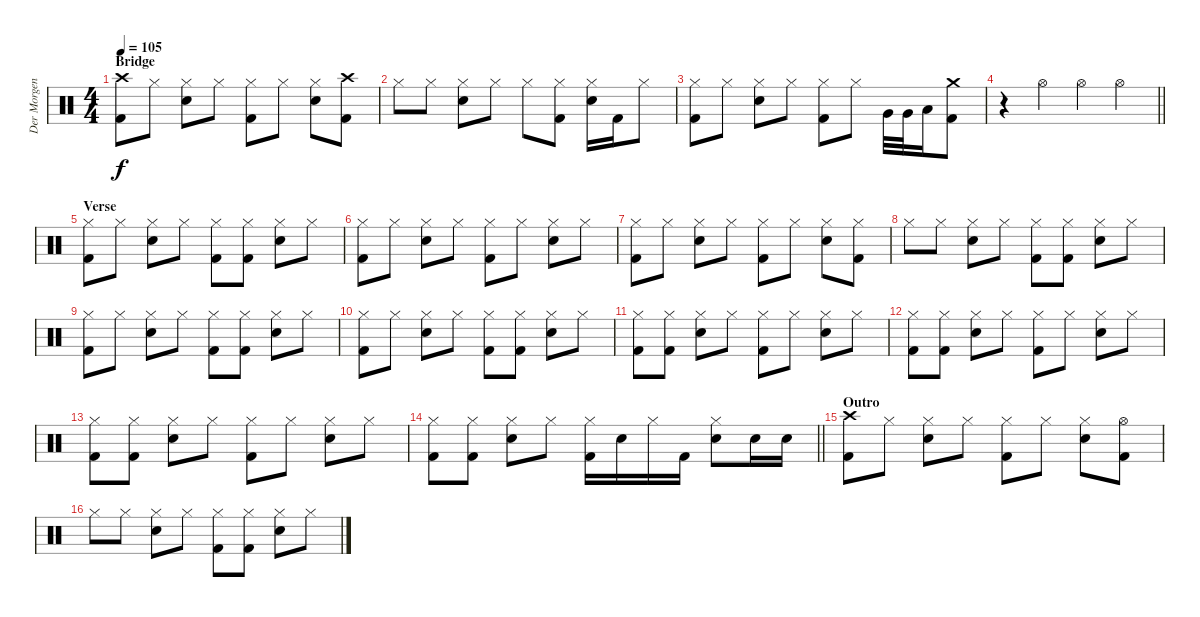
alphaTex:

\track ("Der Morgenstern" "Der Morgen") {instrument percussion}
\staff {score}
\articulation defaults
\ts (4 4)
\section ("" "Bridge")
\tempo 105
\clef neutral
\ks c
("Crash high (hit)" "Kick (hit) 2").8{dy f} "Hi-Hat (closed)".8 ("Hi-Hat (closed)" "Electric Snare (hit)").8 "Hi-Hat (closed)".8 ("Hi-Hat (closed)" "Kick (hit) 2").8 "Hi-Hat (closed)".8 ("Hi-Hat (closed)" "Electric Snare (hit)").8 ("Crash high (hit)" "Kick (hit) 2").8 |
"Hi-Hat (closed)".8 "Hi-Hat (closed)".8 ("Hi-Hat (closed)" "Electric Snare (hit)").8 "Hi-Hat (closed)".8 "Hi-Hat (closed)".8 ("Hi-Hat (closed)" "Kick (hit) 2").8 ("Hi-Hat (closed)" "Electric Snare (hit)").16 "Kick (hit) 2".16 "Hi-Hat (closed)".8 |
("Hi-Hat (closed)" "Kick (hit) 2").8 "Hi-Hat (closed)".8 ("Hi-Hat (closed)" "Electric Snare (hit)").8 "Hi-Hat (closed)".8 ("Hi-Hat (closed)" "Kick (hit) 2").8 "Hi-Hat (closed)".8 "Very Low Tom (hit)".32 "Very Low Tom (hit)".32 "Low Floor Tom (hit)".16 ("Crash medium (hit)" "Kick (hit) 2").8 |
\barLineRight lightlight
r.4 "Hi-Hat (open)".4 "Hi-Hat (open)".4 "Hi-Hat (open)".4 |
\section ("" "Verse")
("Hi-Hat (closed)" "Kick (hit) 2").8 "Hi-Hat (closed)".8 ("Hi-Hat (closed)" "Electric Snare (hit)").8 "Hi-Hat (closed)".8 ("Hi-Hat (closed)" "Kick (hit) 2").8 ("Hi-Hat (closed)" "Kick (hit) 2").8 ("Hi-Hat (closed)" "Electric Snare (hit)").8 "Hi-Hat (closed)".8 |
("Hi-Hat (closed)" "Kick (hit) 2").8 "Hi-Hat (closed)".8 ("Hi-Hat (closed)" "Electric Snare (hit)").8 "Hi-Hat (closed)".8 ("Hi-Hat (closed)" "Kick (hit) 2").8 "Hi-Hat (closed)".8 ("Hi-Hat (closed)" "Electric Snare (hit)").8 "Hi-Hat (closed)".8 |
("Hi-Hat (closed)" "Kick (hit) 2").8 "Hi-Hat (closed)".8 ("Hi-Hat (closed)" "Electric Snare (hit)").8 "Hi-Hat (closed)".8 ("Hi-Hat (closed)" "Kick (hit) 2").8 "Hi-Hat (closed)".8 ("Hi-Hat (closed)" "Electric Snare (hit)").8 ("Hi-Hat (closed)" "Kick (hit) 2").8 |
"Hi-Hat (closed)".8 "Hi-Hat (closed)".8 ("Hi-Hat (closed)" "Electric Snare (hit)").8 "Hi-Hat (closed)".8 ("Hi-Hat (closed)" "Kick (hit) 2").8 ("Hi-Hat (closed)" "Kick (hit) 2").8 ("Hi-Hat (closed)" "Electric Snare (hit)").8 "Hi-Hat (closed)".8 |
("Hi-Hat (closed)" "Kick (hit) 2").8 "Hi-Hat (closed)".8 ("Hi-Hat (closed)" "Electric Snare (hit)").8 "Hi-Hat (closed)".8 ("Hi-Hat (closed)" "Kick (hit) 2").8 ("Hi-Hat (closed)" "Kick (hit) 2").8 ("Hi-Hat (closed)" "Electric Snare (hit)").8 "Hi-Hat (closed)".8 |
("Hi-Hat (closed)" "Kick (hit) 2").8 "Hi-Hat (closed)".8 ("Hi-Hat (closed)" "Electric Snare (hit)").8 "Hi-Hat (closed)".8 ("Hi-Hat (closed)" "Kick (hit) 2").8 ("Hi-Hat (closed)" "Kick (hit) 2").8 ("Hi-Hat (closed)" "Electric Snare (hit)").8 "Hi-Hat (closed)".8 |
("Hi-Hat (closed)" "Kick (hit) 2").8 ("Hi-Hat (closed)" "Kick (hit) 2").8 ("Hi-Hat (closed)" "Electric Snare (hit)").8 "Hi-Hat (closed)".8 ("Hi-Hat (closed)" "Kick (hit) 2").8 "Hi-Hat (closed)".8 ("Hi-Hat (closed)" "Electric Snare (hit)").8 "Hi-Hat (closed)".8 |
("Hi-Hat (closed)" "Kick (hit) 2").8 ("Hi-Hat (closed)" "Kick (hit) 2").8 ("Hi-Hat (closed)" "Electric Snare (hit)").8 "Hi-Hat (closed)".8 ("Hi-Hat (closed)" "Kick (hit) 2").8 "Hi-Hat (closed)".8 ("Hi-Hat (closed)" "Electric Snare (hit)").8 "Hi-Hat (closed)".8 |
("Hi-Hat (closed)" "Kick (hit) 2").8 ("Hi-Hat (closed)" "Kick (hit) 2").8 ("Hi-Hat (closed)" "Electric Snare (hit)").8 "Hi-Hat (closed)".8 ("Hi-Hat (closed)" "Kick (hit) 2").8 "Hi-Hat (closed)".8 ("Hi-Hat (closed)" "Electric Snare (hit)").8 "Hi-Hat (closed)".8 |
\barLineRight lightlight
("Hi-Hat (closed)" "Kick (hit) 2").8 ("Hi-Hat (closed)" "Kick (hit) 2").8 ("Hi-Hat (closed)" "Electric Snare (hit)").8 "Hi-Hat (closed)".8 ("Hi-Hat (closed)" "Kick (hit) 2").16 "Electric Snare (hit)".16 "Hi-Hat (closed)".16 "Kick (hit) 2".16 ("Hi-Hat (closed)" "Electric Snare (hit)").8 "Electric Snare (hit)".16 "Electric Snare (hit)".16 |
\section ("" "Outro")
("Crash high (hit)" "Kick (hit) 2").8 "Hi-Hat (closed)".8 ("Hi-Hat (closed)" "Electric Snare (hit)").8 "Hi-Hat (closed)".8 ("Hi-Hat (closed)" "Kick (hit) 2").8 "Hi-Hat (closed)".8 ("Hi-Hat (closed)" "Electric Snare (hit)").8 ("Hi-Hat (open)" "Kick (hit) 2").8 |
"Hi-Hat (closed)".8 "Hi-Hat (closed)".8 ("Hi-Hat (closed)" "Electric Snare (hit)").8 "Hi-Hat (closed)".8 ("Hi-Hat (closed)" "Kick (hit) 2").8 ("Hi-Hat (closed)" "Kick (hit) 2").8 ("Hi-Hat (closed)" "Electric Snare (hit)").8 "Hi-Hat (closed)".8
